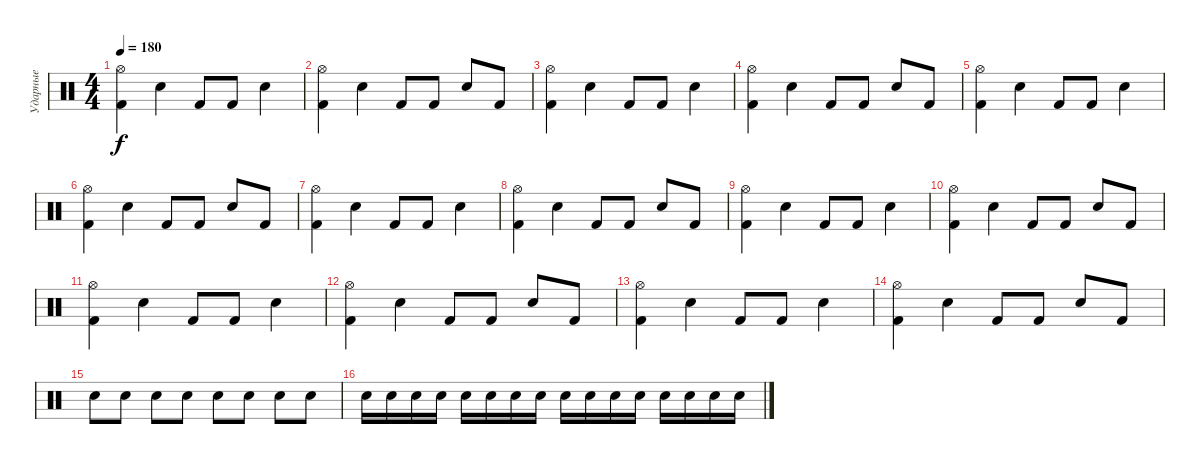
\track ("Ударные" "Ударные") {instrument percussion}
\staff
\articulation defaults
\ts (4 4)
\tempo 180
\clef neutral
\ks c
("Kick (hit) 2" "Hi-Hat (open)").4{dy f} "Electric Snare (hit)".4 "Kick (hit) 2".8 "Kick (hit) 2".8 "Electric Snare (hit)".4 |
("Kick (hit) 2" "Hi-Hat (open)").4 "Electric Snare (hit)".4 "Kick (hit) 2".8 "Kick (hit) 2".8 "Electric Snare (hit)".8 "Kick (hit) 2".8 |
("Kick (hit) 2" "Hi-Hat (open)").4 "Electric Snare (hit)".4 "Kick (hit) 2".8 "Kick (hit) 2".8 "Electric Snare (hit)".4 |
("Kick (hit) 2" "Hi-Hat (open)").4 "Electric Snare (hit)".4 "Kick (hit) 2".8 "Kick (hit) 2".8 "Electric Snare (hit)".8 "Kick (hit) 2".8 |
("Kick (hit) 2" "Hi-Hat (open)").4 "Electric Snare (hit)".4 "Kick (hit) 2".8 "Kick (hit) 2".8 "Electric Snare (hit)".4 |
("Kick (hit) 2" "Hi-Hat (open)").4 "Electric Snare (hit)".4 "Kick (hit) 2".8 "Kick (hit) 2".8 "Electric Snare (hit)".8 "Kick (hit) 2".8 |
("Kick (hit) 2" "Hi-Hat (open)").4 "Electric Snare (hit)".4 "Kick (hit) 2".8 "Kick (hit) 2".8 "Electric Snare (hit)".4 |
("Kick (hit) 2" "Hi-Hat (open)").4 "Electric Snare (hit)".4 "Kick (hit) 2".8 "Kick (hit) 2".8 "Electric Snare (hit)".8 "Kick (hit) 2".8 |
("Kick (hit) 2" "Hi-Hat (open)").4 "Electric Snare (hit)".4 "Kick (hit) 2".8 "Kick (hit) 2".8 "Electric Snare (hit)".4 |
("Kick (hit) 2" "Hi-Hat (open)").4 "Electric Snare (hit)".4 "Kick (hit) 2".8 "Kick (hit) 2".8 "Electric Snare (hit)".8 "Kick (hit) 2".8 |
("Kick (hit) 2" "Hi-Hat (open)").4 "Electric Snare (hit)".4 "Kick (hit) 2".8 "Kick (hit) 2".8 "Electric Snare (hit)".4 |
("Kick (hit) 2" "Hi-Hat (open)").4 "Electric Snare (hit)".4 "Kick (hit) 2".8 "Kick (hit) 2".8 "Electric Snare (hit)".8 "Kick (hit) 2".8 |
("Kick (hit) 2" "Hi-Hat (open)").4 "Electric Snare (hit)".4 "Kick (hit) 2".8 "Kick (hit) 2".8 "Electric Snare (hit)".4 |
("Kick (hit) 2" "Hi-Hat (open)").4 "Electric Snare (hit)".4 "Kick (hit) 2".8 "Kick (hit) 2".8 "Electric Snare (hit)".8 "Kick (hit) 2".8 |
"Electric Snare (hit)".8 "Electric Snare (hit)".8 "Electric Snare (hit)".8 "Electric Snare (hit)".8 "Electric Snare (hit)".8 "Electric Snare (hit)".8 "Electric Snare (hit)".8 "Electric Snare (hit)".8 |
"Electric Snare (hit)".16 "Electric Snare (hit)".16 "Electric Snare (hit)".16 "Electric Snare (hit)".16 "Electric Snare (hit)".16 "Electric Snare (hit)".16 "Electric Snare (hit)".16 "Electric Snare (hit)".16 "Electric Snare (hit)".16 "Electric Snare (hit)".16 "Electric Snare (hit)".16 "Electric Snare (hit)".16 "Electric Snare (hit)".16 "Electric Snare (hit)".16 "Electric Snare (hit)".16 "Electric Snare (hit)".16
